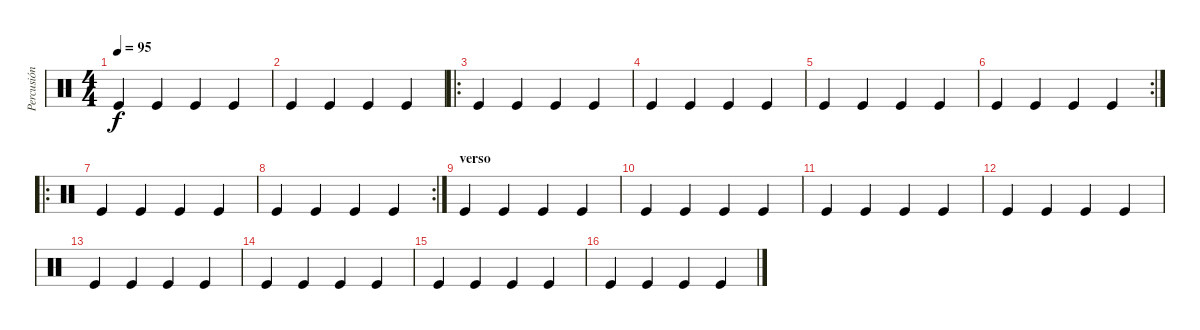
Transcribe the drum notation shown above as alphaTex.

\track ("Percusión" "Percusión") {instrument percussion}
\staff {score}
\articulation defaults
\ts (4 4)
\tempo 95
\clef neutral
\ks c "Kick (hit)".4{dy f} "Kick (hit)".4 "Kick (hit)".4 "Kick (hit)".4
|
"Kick (hit)".4 "Kick (hit)".4 "Kick (hit)".4 "Kick (hit)".4 |
\ro "Kick (hit)".4 "Kick (hit)".4 "Kick (hit)".4 "Kick (hit)".4
|
"Kick (hit)".4 "Kick (hit)".4 "Kick (hit)".4 "Kick (hit)".4 |
"Kick (hit)".4 "Kick (hit)".4 "Kick (hit)".4 "Kick (hit)".4 |
\rc 2 "Kick (hit)".4 "Kick (hit)".4 "Kick (hit)".4 "Kick (hit)".4
|
\ro "Kick (hit)".4 "Kick (hit)".4 "Kick (hit)".4 "Kick (hit)".4
|
\rc 2 "Kick (hit)".4 "Kick (hit)".4 "Kick (hit)".4 "Kick (hit)".4
|
\section ("" "verso")
"Kick (hit)".4 "Kick (hit)".4 "Kick (hit)".4 "Kick (hit)".4 |
"Kick (hit)".4 "Kick (hit)".4 "Kick (hit)".4 "Kick (hit)".4 |
"Kick (hit)".4 "Kick (hit)".4 "Kick (hit)".4 "Kick (hit)".4 |
"Kick (hit)".4 "Kick (hit)".4 "Kick (hit)".4 "Kick (hit)".4 |
"Kick (hit)".4 "Kick (hit)".4 "Kick (hit)".4 "Kick (hit)".4 |
"Kick (hit)".4 "Kick (hit)".4 "Kick (hit)".4 "Kick (hit)".4 |
"Kick (hit)".4 "Kick (hit)".4 "Kick (hit)".4 "Kick (hit)".4 |
"Kick (hit)".4 "Kick (hit)".4 "Kick (hit)".4 "Kick (hit)".4
